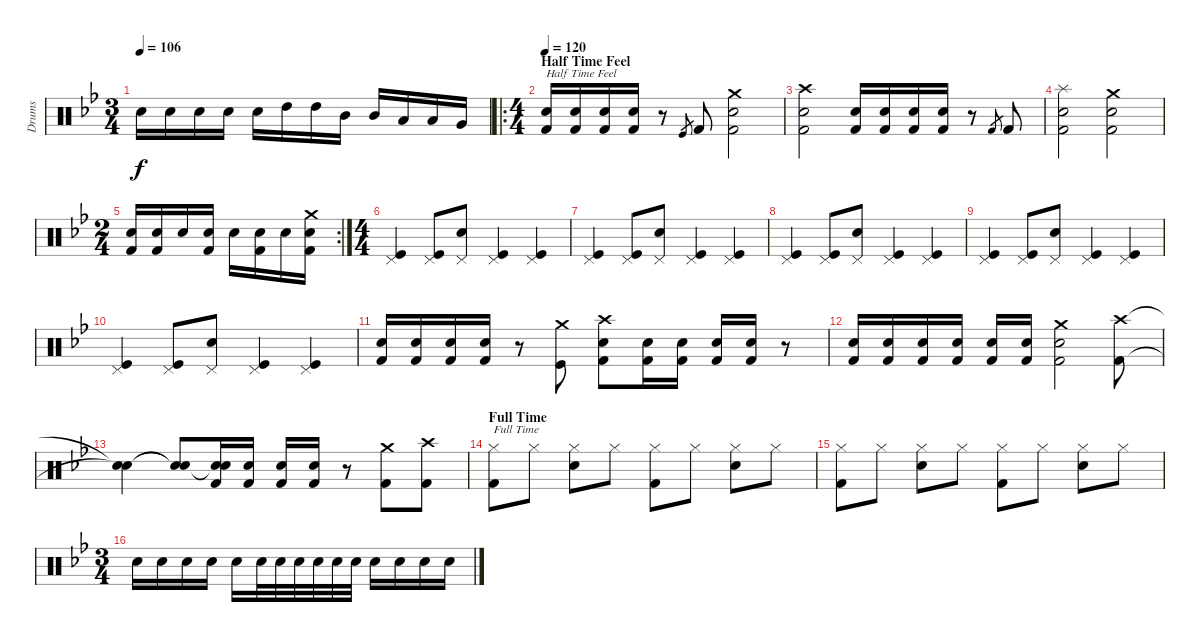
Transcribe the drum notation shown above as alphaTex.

\track ("Drums" "Drums") {instrument percussion}
\staff {score}
\articulation defaults
\ts (3 4)
\tempo 106
\clef neutral
\ks bb "Electric Snare (hit)".16{dy f} "Electric Snare (hit)".16 "Electric Snare (hit)".16 "Electric Snare (hit)".16 "Electric Snare (hit)".16 "High Tom (hit)".16 "High Tom (hit)".16 "Mid Tom (hit)".16 "Mid Tom (hit)".16 "Low Tom (hit)".16 "Low Tom (hit)".16 "Very Low Tom (hit)".16
|
\ro
\ts (4 4)
\section ("" "Half Time Feel")
\tempo 120
("Electric Snare (hit)" "Kick (hit) 2").16{txt "Half Time Feel"} ("Electric Snare (hit)" "Kick (hit) 2").16 ("Electric Snare (hit)" "Kick (hit) 2").16 ("Electric Snare (hit)" "Kick (hit) 2").16 r.8 "Kick (hit)".8{gr} "Kick (hit) 2".8 ("Crash medium (hit)" "Electric Snare (hit)" "Kick (hit) 2").2 |
("Crash high (hit)" "Electric Snare (hit)" "Kick (hit) 2").2 ("Electric Snare (hit)" "Kick (hit) 2").16 ("Electric Snare (hit)" "Kick (hit) 2").16 ("Electric Snare (hit)" "Kick (hit) 2").16 ("Electric Snare (hit)" "Kick (hit) 2").16 r.8 "Kick (hit) 2".8{gr} "Kick (hit) 2".8 |
("Splash (hit)" "Electric Snare (hit)" "Kick (hit) 2").2 ("Crash medium (hit)" "Electric Snare (hit)" "Kick (hit) 2").2 |
\rc 2
\ts (2 4)
("Electric Snare (hit)" "Kick (hit) 2").16 ("Electric Snare (hit)" "Kick (hit) 2").16 "Electric Snare (hit)".16 ("Electric Snare (hit)" "Kick (hit) 2").16 "Electric Snare (hit)".16 ("Electric Snare (hit)" "Kick (hit) 2").16 "Electric Snare (hit)".16 ("Crash medium (hit)" "Electric Snare (hit)" "Kick (hit) 2").16 |
\ts (4 4)
("Pedal Hi-Hat (hit)" "Kick (hit)").4 ("Pedal Hi-Hat (hit)" "Kick (hit)").8 ("Pedal Hi-Hat (hit)" "Electric Snare (hit)").8 ("Pedal Hi-Hat (hit)" "Kick (hit)").4 ("Pedal Hi-Hat (hit)" "Kick (hit)").4 |
("Pedal Hi-Hat (hit)" "Kick (hit)").4 ("Pedal Hi-Hat (hit)" "Kick (hit)").8 ("Pedal Hi-Hat (hit)" "Electric Snare (hit)").8 ("Pedal Hi-Hat (hit)" "Kick (hit)").4 ("Pedal Hi-Hat (hit)" "Kick (hit)").4 |
("Pedal Hi-Hat (hit)" "Kick (hit)").4 ("Pedal Hi-Hat (hit)" "Kick (hit)").8 ("Pedal Hi-Hat (hit)" "Electric Snare (hit)").8 ("Pedal Hi-Hat (hit)" "Kick (hit)").4 ("Pedal Hi-Hat (hit)" "Kick (hit)").4 |
("Pedal Hi-Hat (hit)" "Kick (hit)").4 ("Pedal Hi-Hat (hit)" "Kick (hit)").8 ("Pedal Hi-Hat (hit)" "Electric Snare (hit)").8 ("Pedal Hi-Hat (hit)" "Kick (hit)").4 ("Pedal Hi-Hat (hit)" "Kick (hit)").4 |
("Pedal Hi-Hat (hit)" "Kick (hit)").4 ("Pedal Hi-Hat (hit)" "Kick (hit)").8 ("Pedal Hi-Hat (hit)" "Electric Snare (hit)").8 ("Pedal Hi-Hat (hit)" "Kick (hit)").4 ("Pedal Hi-Hat (hit)" "Kick (hit)").4 |
("Electric Snare (hit)" "Kick (hit) 2").16 ("Electric Snare (hit)" "Kick (hit) 2").16 ("Electric Snare (hit)" "Kick (hit) 2").16 ("Electric Snare (hit)" "Kick (hit) 2").16 r.8 ("Crash medium (hit)" "Kick (hit)").8 ("Crash high (hit)" "Electric Snare (hit)" "Kick (hit) 2").8 ("Electric Snare (hit)" "Kick (hit) 2").16 ("Electric Snare (hit)" "Kick (hit) 2").16 ("Electric Snare (hit)" "Kick (hit) 2").16 ("Electric Snare (hit)" "Kick (hit) 2").16 r.8 |
("Electric Snare (hit)" "Kick (hit) 2").16 ("Electric Snare (hit)" "Kick (hit) 2").16 ("Electric Snare (hit)" "Kick (hit) 2").16 ("Electric Snare (hit)" "Kick (hit) 2").16 ("Electric Snare (hit)" "Kick (hit) 2").16 ("Electric Snare (hit)" "Kick (hit) 2").16 ("Crash medium (hit)" "Electric Snare (hit)" "Kick (hit) 2").2 ("Crash high (hit)" "Kick (hit) 2").8 |
("Snare (hit)"{t} "Snare (hit)"{t}).4 ("Snare (hit)"{t} "Snare (hit)"{t}).8 ("Snare (hit)"{t} "Electric Snare (hit)" "Kick (hit) 2").16 ("Electric Snare (hit)" "Kick (hit) 2").16 ("Electric Snare (hit)" "Kick (hit) 2").16 ("Electric Snare (hit)" "Kick (hit) 2").16 r.8 ("Crash medium (hit)" "Kick (hit) 2").8 ("Crash high (hit)" "Kick (hit) 2").8 |
\section ("" "Full Time")
("Hi-Hat (closed)" "Kick (hit) 2").8{txt "Full Time"} "Hi-Hat (closed)".8 ("Hi-Hat (closed)" "Electric Snare (hit)").8 "Hi-Hat (closed)".8 ("Hi-Hat (closed)" "Kick (hit) 2").8 "Hi-Hat (closed)".8 ("Hi-Hat (closed)" "Electric Snare (hit)").8 "Hi-Hat (closed)".8 |
("Hi-Hat (closed)" "Kick (hit) 2").8 "Hi-Hat (closed)".8 ("Hi-Hat (closed)" "Electric Snare (hit)").8 "Hi-Hat (closed)".8 ("Hi-Hat (closed)" "Kick (hit) 2").8 "Hi-Hat (closed)".8 ("Hi-Hat (closed)" "Electric Snare (hit)").8 "Hi-Hat (closed)".8 |
\ts (3 4)
"Electric Snare (hit)".16 "Electric Snare (hit)".16 "Electric Snare (hit)".16 "Electric Snare (hit)".16 "Electric Snare (hit)".16 "Electric Snare (hit)".32 "Electric Snare (hit)".32 "Electric Snare (hit)".32 "Electric Snare (hit)".32 "Electric Snare (hit)".32 "Electric Snare (hit)".32 "Electric Snare (hit)".16 "Electric Snare (hit)".16 "Electric Snare (hit)".16 "Electric Snare (hit)".16
